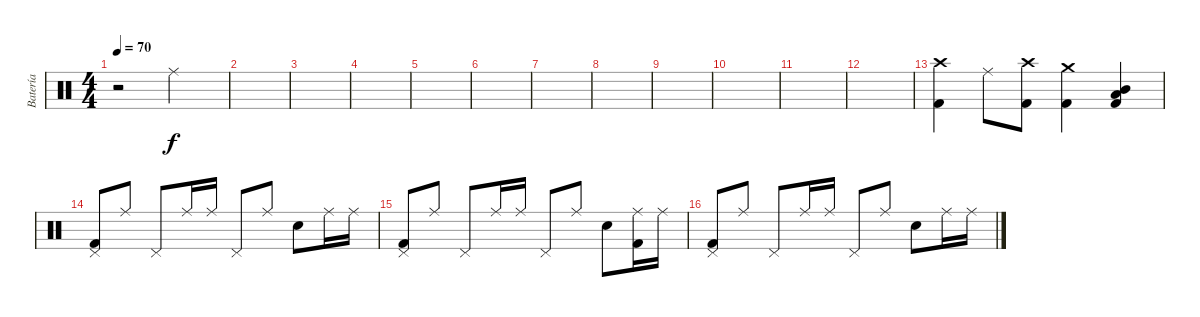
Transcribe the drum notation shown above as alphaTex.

\track ("Batería" "Batería") {instrument percussion}
\staff {score}
\articulation defaults
\ts (4 4)
\tempo 70
\clef neutral
\ks c
r.2{dy f} "Ride (middle)".2 |
|
|
|
|
|
|
|
|
|
|
|
("Crash high (hit)" "Kick (hit) 2").4 "Ride (middle)".8 ("Crash high (hit)" "Kick (hit) 2").8 ("Crash medium (hit)" "Kick (hit) 2").4 ("Low Tom (hit)" "Mid Tom (hit)" "Kick (hit) 2").4 |
("Pedal Hi-Hat (hit)" "Kick (hit) 2").8 "Ride (middle)".8 "Pedal Hi-Hat (hit)".8 "Ride (middle)".16 "Ride (middle)".16 "Pedal Hi-Hat (hit)".8 "Ride (middle)".8 "Snare (hit) 2".8 "Ride (middle)".16 "Ride (middle)".16 |
("Pedal Hi-Hat (hit)" "Kick (hit) 2").8 "Ride (middle)".8 "Pedal Hi-Hat (hit)".8 "Ride (middle)".16 "Ride (middle)".16 "Pedal Hi-Hat (hit)".8 "Ride (middle)".8 "Snare (hit) 2".8 ("Ride (middle)" "Kick (hit) 2").16 "Ride (middle)".16 |
("Pedal Hi-Hat (hit)" "Kick (hit) 2").8 "Ride (middle)".8 "Pedal Hi-Hat (hit)".8 "Ride (middle)".16 "Ride (middle)".16 "Pedal Hi-Hat (hit)".8 "Ride (middle)".8 "Snare (hit) 2".8 "Ride (middle)".16 "Ride (middle)".16
